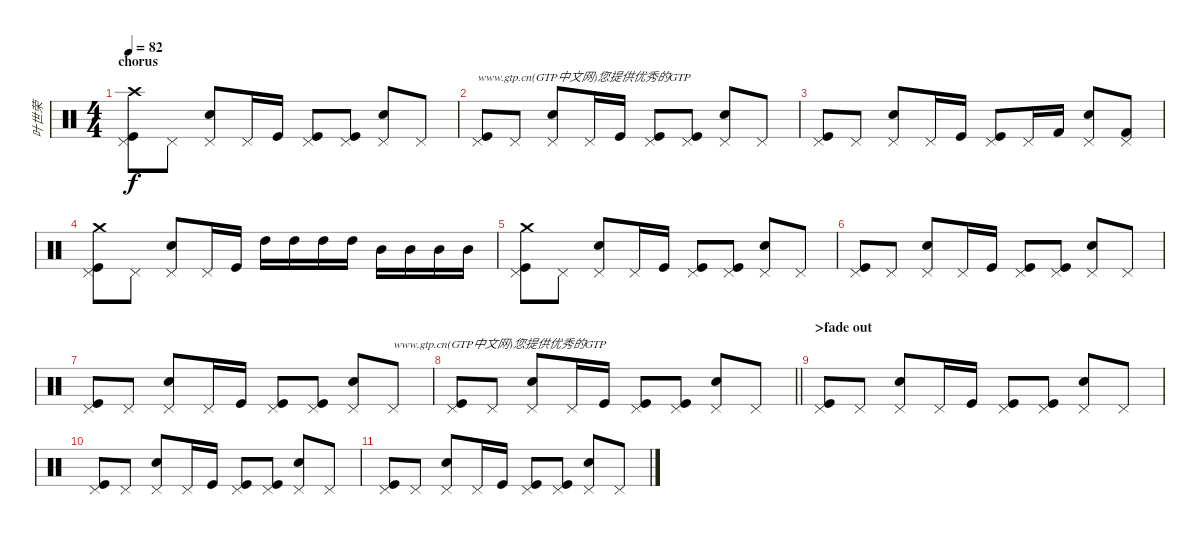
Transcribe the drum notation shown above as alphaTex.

\track ("叶世荣" "叶世荣") {instrument percussion}
\staff {score}
\articulation defaults
\ts (4 4)
\section ("" "chorus")
\tempo 82
\clef neutral
\ks c
("Crash high (hit)" "Pedal Hi-Hat (hit)" "Kick (hit)").8{dy f} "Pedal Hi-Hat (hit)".8 ("Electric Snare (hit)" "Pedal Hi-Hat (hit)").8 "Pedal Hi-Hat (hit)".16 "Kick (hit)".16 ("Pedal Hi-Hat (hit)" "Kick (hit)").8 ("Pedal Hi-Hat (hit)" "Kick (hit)").8 ("Electric Snare (hit)" "Pedal Hi-Hat (hit)").8 "Pedal Hi-Hat (hit)".8 |
("Pedal Hi-Hat (hit)" "Kick (hit)").8{txt "www.gtp.cn(GTP中文网)您提供优秀的GTP"} "Pedal Hi-Hat (hit)".8 ("Electric Snare (hit)" "Pedal Hi-Hat (hit)").8 "Pedal Hi-Hat (hit)".16 "Kick (hit)".16 ("Pedal Hi-Hat (hit)" "Kick (hit)").8 ("Pedal Hi-Hat (hit)" "Kick (hit)").8 ("Electric Snare (hit)" "Pedal Hi-Hat (hit)").8 "Pedal Hi-Hat (hit)".8 |
("Pedal Hi-Hat (hit)" "Kick (hit)").8 "Pedal Hi-Hat (hit)".8 ("Electric Snare (hit)" "Pedal Hi-Hat (hit)").8 "Pedal Hi-Hat (hit)".16 "Kick (hit)".16 ("Pedal Hi-Hat (hit)" "Kick (hit)").8 "Pedal Hi-Hat (hit)".16 "Kick (hit) 2".16 ("Pedal Hi-Hat (hit)" "Electric Snare (hit)").8 ("Pedal Hi-Hat (hit)" "Kick (hit) 2").8 |
("Crash medium (hit)" "Pedal Hi-Hat (hit)" "Kick (hit)").8 "Pedal Hi-Hat (hit)".8 ("Electric Snare (hit)" "Pedal Hi-Hat (hit)").8 "Pedal Hi-Hat (hit)".16 "Kick (hit)".16 "High Tom (hit)".16 "High Tom (hit)".16 "High Tom (hit)".16 "High Tom (hit)".16 "Mid Tom (hit)".16 "Mid Tom (hit)".16 "Mid Tom (hit)".16 "Mid Tom (hit)".16 |
("Crash medium (hit)" "Pedal Hi-Hat (hit)" "Kick (hit)").8 "Pedal Hi-Hat (hit)".8 ("Electric Snare (hit)" "Pedal Hi-Hat (hit)").8 "Pedal Hi-Hat (hit)".16 "Kick (hit)".16 ("Pedal Hi-Hat (hit)" "Kick (hit)").8 ("Pedal Hi-Hat (hit)" "Kick (hit)").8 ("Electric Snare (hit)" "Pedal Hi-Hat (hit)").8 "Pedal Hi-Hat (hit)".8 |
("Pedal Hi-Hat (hit)" "Kick (hit)").8 "Pedal Hi-Hat (hit)".8 ("Electric Snare (hit)" "Pedal Hi-Hat (hit)").8 "Pedal Hi-Hat (hit)".16 "Kick (hit)".16 ("Pedal Hi-Hat (hit)" "Kick (hit)").8 ("Pedal Hi-Hat (hit)" "Kick (hit)").8 ("Electric Snare (hit)" "Pedal Hi-Hat (hit)").8 "Pedal Hi-Hat (hit)".8 |
("Pedal Hi-Hat (hit)" "Kick (hit)").8 "Pedal Hi-Hat (hit)".8 ("Electric Snare (hit)" "Pedal Hi-Hat (hit)").8 "Pedal Hi-Hat (hit)".16 "Kick (hit)".16 ("Pedal Hi-Hat (hit)" "Kick (hit)").8 ("Pedal Hi-Hat (hit)" "Kick (hit)").8 ("Electric Snare (hit)" "Pedal Hi-Hat (hit)").8 "Pedal Hi-Hat (hit)".8{txt "www.gtp.cn(GTP中文网)您提供优秀的GTP"} |
\barLineRight lightlight
("Pedal Hi-Hat (hit)" "Kick (hit)").8 "Pedal Hi-Hat (hit)".8 ("Electric Snare (hit)" "Pedal Hi-Hat (hit)").8 "Pedal Hi-Hat (hit)".16 "Kick (hit)".16 ("Pedal Hi-Hat (hit)" "Kick (hit)").8 ("Pedal Hi-Hat (hit)" "Kick (hit)").8 ("Electric Snare (hit)" "Pedal Hi-Hat (hit)").8 "Pedal Hi-Hat (hit)".8 |
\section ("" ">fade out")
("Pedal Hi-Hat (hit)" "Kick (hit)").8 "Pedal Hi-Hat (hit)".8 ("Electric Snare (hit)" "Pedal Hi-Hat (hit)").8 "Pedal Hi-Hat (hit)".16 "Kick (hit)".16 ("Pedal Hi-Hat (hit)" "Kick (hit)").8 ("Pedal Hi-Hat (hit)" "Kick (hit)").8 ("Electric Snare (hit)" "Pedal Hi-Hat (hit)").8 "Pedal Hi-Hat (hit)".8 |
("Pedal Hi-Hat (hit)" "Kick (hit)").8 "Pedal Hi-Hat (hit)".8 ("Electric Snare (hit)" "Pedal Hi-Hat (hit)").8 "Pedal Hi-Hat (hit)".16 "Kick (hit)".16 ("Pedal Hi-Hat (hit)" "Kick (hit)").8 ("Pedal Hi-Hat (hit)" "Kick (hit)").8 ("Electric Snare (hit)" "Pedal Hi-Hat (hit)").8 "Pedal Hi-Hat (hit)".8 |
("Pedal Hi-Hat (hit)" "Kick (hit)").8 "Pedal Hi-Hat (hit)".8 ("Electric Snare (hit)" "Pedal Hi-Hat (hit)").8 "Pedal Hi-Hat (hit)".16 "Kick (hit)".16 ("Pedal Hi-Hat (hit)" "Kick (hit)").8 ("Pedal Hi-Hat (hit)" "Kick (hit)").8 ("Electric Snare (hit)" "Pedal Hi-Hat (hit)").8 "Pedal Hi-Hat (hit)".8
